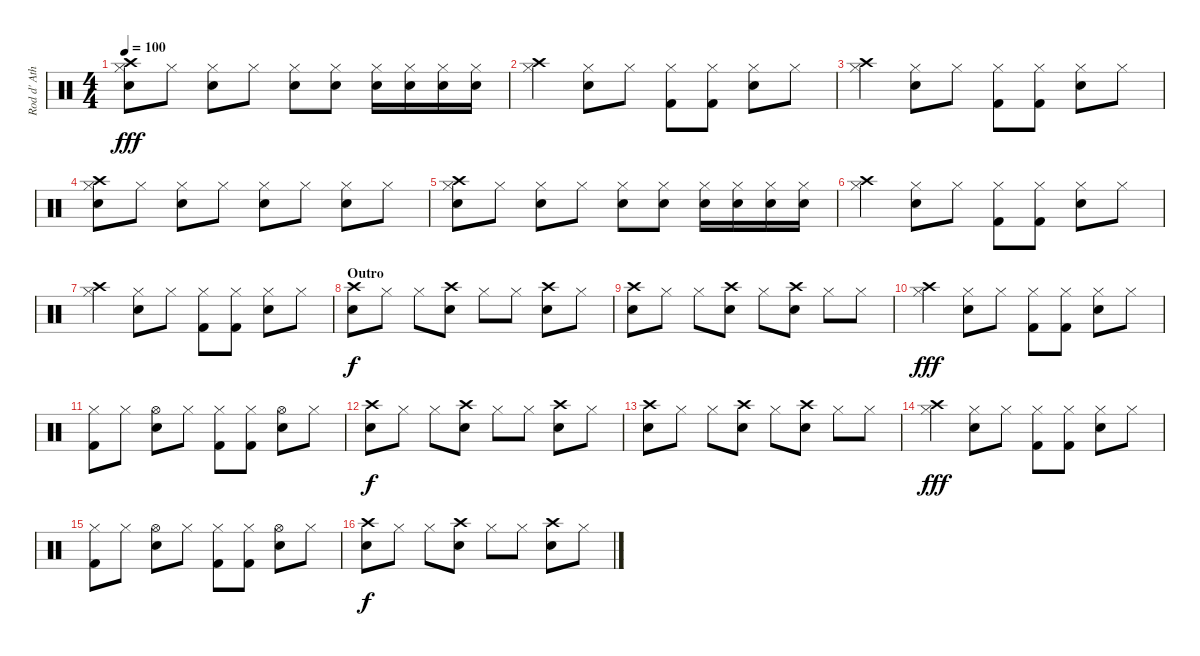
\track ("Rod d' Ath" "Rod d' Ath") {instrument percussion}
\staff {score}
\articulation defaults
\ts (4 4)
\tempo 100
\clef neutral
\ks c
("Snare (hit) 2" "Hi-Hat (closed)" "Crash high (hit)").8{dy fff} "Hi-Hat (closed)".8 ("Snare (hit) 2" "Hi-Hat (closed)").8 "Hi-Hat (closed)".8 ("Snare (hit) 2" "Hi-Hat (closed)").8 ("Snare (hit) 2" "Hi-Hat (closed)").8 ("Snare (hit) 2" "Hi-Hat (closed)").16 ("Snare (hit) 2" "Hi-Hat (closed)").16 ("Snare (hit) 2" "Hi-Hat (closed)").16 ("Snare (hit) 2" "Hi-Hat (closed)").16 |
("Crash high (hit)" "Hi-Hat (closed)").4 ("Snare (hit) 2" "Hi-Hat (closed)").8 "Hi-Hat (closed)".8 ("Kick (hit) 2" "Hi-Hat (closed)").8 ("Kick (hit) 2" "Hi-Hat (closed)").8 ("Snare (hit) 2" "Hi-Hat (closed)").8 "Hi-Hat (closed)".8 |
("Crash high (hit)" "Hi-Hat (closed)").4 ("Snare (hit) 2" "Hi-Hat (closed)").8 "Hi-Hat (closed)".8 ("Kick (hit) 2" "Hi-Hat (closed)").8 ("Kick (hit) 2" "Hi-Hat (closed)").8 ("Snare (hit) 2" "Hi-Hat (closed)").8 "Hi-Hat (closed)".8 |
("Snare (hit) 2" "Hi-Hat (closed)" "Crash high (hit)").8{volume 16} "Hi-Hat (closed)".8 ("Snare (hit) 2" "Hi-Hat (closed)").8 "Hi-Hat (closed)".8 ("Snare (hit) 2" "Hi-Hat (closed)").8 "Hi-Hat (closed)".8 ("Snare (hit) 2" "Hi-Hat (closed)").8 "Hi-Hat (closed)".8 |
("Snare (hit) 2" "Hi-Hat (closed)" "Crash high (hit)").8 "Hi-Hat (closed)".8 ("Snare (hit) 2" "Hi-Hat (closed)").8 "Hi-Hat (closed)".8 ("Snare (hit) 2" "Hi-Hat (closed)").8 ("Snare (hit) 2" "Hi-Hat (closed)").8 ("Snare (hit) 2" "Hi-Hat (closed)").16 ("Snare (hit) 2" "Hi-Hat (closed)").16 ("Snare (hit) 2" "Hi-Hat (closed)").16 ("Snare (hit) 2" "Hi-Hat (closed)").16 |
("Crash high (hit)" "Hi-Hat (closed)").4 ("Snare (hit) 2" "Hi-Hat (closed)").8 "Hi-Hat (closed)".8 ("Kick (hit) 2" "Hi-Hat (closed)").8 ("Kick (hit) 2" "Hi-Hat (closed)").8 ("Snare (hit) 2" "Hi-Hat (closed)").8 "Hi-Hat (closed)".8 |
("Crash high (hit)" "Hi-Hat (closed)").4 ("Snare (hit) 2" "Hi-Hat (closed)").8 "Hi-Hat (closed)".8 ("Kick (hit) 2" "Hi-Hat (closed)").8 ("Kick (hit) 2" "Hi-Hat (closed)").8 ("Snare (hit) 2" "Hi-Hat (closed)").8 "Hi-Hat (closed)".8 |
\section ("" "Outro")
("Snare (hit) 2" "Crash high (hit)").8{dy f} "Hi-Hat (closed)".8 "Hi-Hat (closed)".8 ("Snare (hit) 2" "Crash high (hit)").8 "Hi-Hat (closed)".8 "Hi-Hat (closed)".8 ("Snare (hit) 2" "Crash high (hit)").8 "Hi-Hat (closed)".8 |
("Snare (hit) 2" "Crash high (hit)").8 "Hi-Hat (closed)".8 "Hi-Hat (closed)".8 ("Snare (hit) 2" "Crash high (hit)").8 "Hi-Hat (closed)".8 ("Crash high (hit)" "Snare (hit) 2").8 "Hi-Hat (closed)".8 "Hi-Hat (closed)".8 |
("Crash high (hit)" "Hi-Hat (closed)").4{dy fff} ("Snare (hit) 2" "Hi-Hat (closed)").8 "Hi-Hat (closed)".8 ("Kick (hit) 2" "Hi-Hat (closed)").8 ("Kick (hit) 2" "Hi-Hat (closed)").8 ("Snare (hit) 2" "Hi-Hat (closed)").8 "Hi-Hat (closed)".8 |
("Kick (hit) 2" "Hi-Hat (closed)").8 "Hi-Hat (closed)".8 ("Hi-Hat (open)" "Snare (hit) 2").8 "Hi-Hat (closed)".8 ("Kick (hit) 2" "Hi-Hat (closed)").8 ("Kick (hit) 2" "Hi-Hat (closed)").8 ("Snare (hit) 2" "Hi-Hat (open)").8 "Hi-Hat (closed)".8 |
("Snare (hit) 2" "Crash high (hit)").8{dy f} "Hi-Hat (closed)".8 "Hi-Hat (closed)".8 ("Snare (hit) 2" "Crash high (hit)").8 "Hi-Hat (closed)".8 "Hi-Hat (closed)".8 ("Snare (hit) 2" "Crash high (hit)").8 "Hi-Hat (closed)".8 |
("Snare (hit) 2" "Crash high (hit)").8 "Hi-Hat (closed)".8 "Hi-Hat (closed)".8 ("Snare (hit) 2" "Crash high (hit)").8 "Hi-Hat (closed)".8 ("Crash high (hit)" "Snare (hit) 2").8 "Hi-Hat (closed)".8 "Hi-Hat (closed)".8 |
("Crash high (hit)" "Hi-Hat (closed)").4{dy fff} ("Snare (hit) 2" "Hi-Hat (closed)").8 "Hi-Hat (closed)".8 ("Kick (hit) 2" "Hi-Hat (closed)").8 ("Kick (hit) 2" "Hi-Hat (closed)").8 ("Snare (hit) 2" "Hi-Hat (closed)").8 "Hi-Hat (closed)".8 |
("Kick (hit) 2" "Hi-Hat (closed)").8 "Hi-Hat (closed)".8 ("Hi-Hat (open)" "Snare (hit) 2").8 "Hi-Hat (closed)".8 ("Kick (hit) 2" "Hi-Hat (closed)").8 ("Kick (hit) 2" "Hi-Hat (closed)").8 ("Snare (hit) 2" "Hi-Hat (open)").8 "Hi-Hat (closed)".8 |
("Snare (hit) 2" "Crash high (hit)").8{dy f} "Hi-Hat (closed)".8 "Hi-Hat (closed)".8 ("Snare (hit) 2" "Crash high (hit)").8 "Hi-Hat (closed)".8 "Hi-Hat (closed)".8 ("Snare (hit) 2" "Crash high (hit)").8 "Hi-Hat (closed)".8
